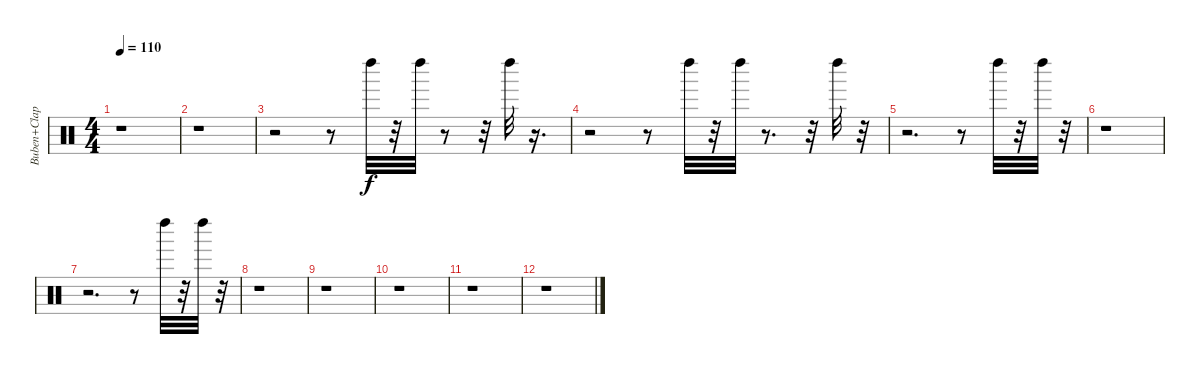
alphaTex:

\track ("Buben+Clap" "Buben+Clap") {instrument percussion}
\staff {score}
\articulation defaults
\ts (4 4)
\tempo 110
\clef neutral
\ks c
r.1{dy f} |
r.1 |
r.2 r.8 "Left Maraca (hit)".32 r.32 "Left Maraca (hit)".32 r.8 r.32 "Left Maraca (hit)".32 r.16{d} |
r.2 r.8 "Left Maraca (hit)".32 r.32 "Left Maraca (hit)".32 r.8{d} r.32 "Left Maraca (hit)".32 r.32 |
r.2{d} r.8 "Left Maraca (hit)".32 r.32 "Left Maraca (hit)".32 r.32 |
r.1 |
r.2{d} r.8 "Left Maraca (hit)".32 r.32 "Left Maraca (hit)".32 r.32 |
r.1 |
r.1 |
r.1 |
r.1 |
r.1
